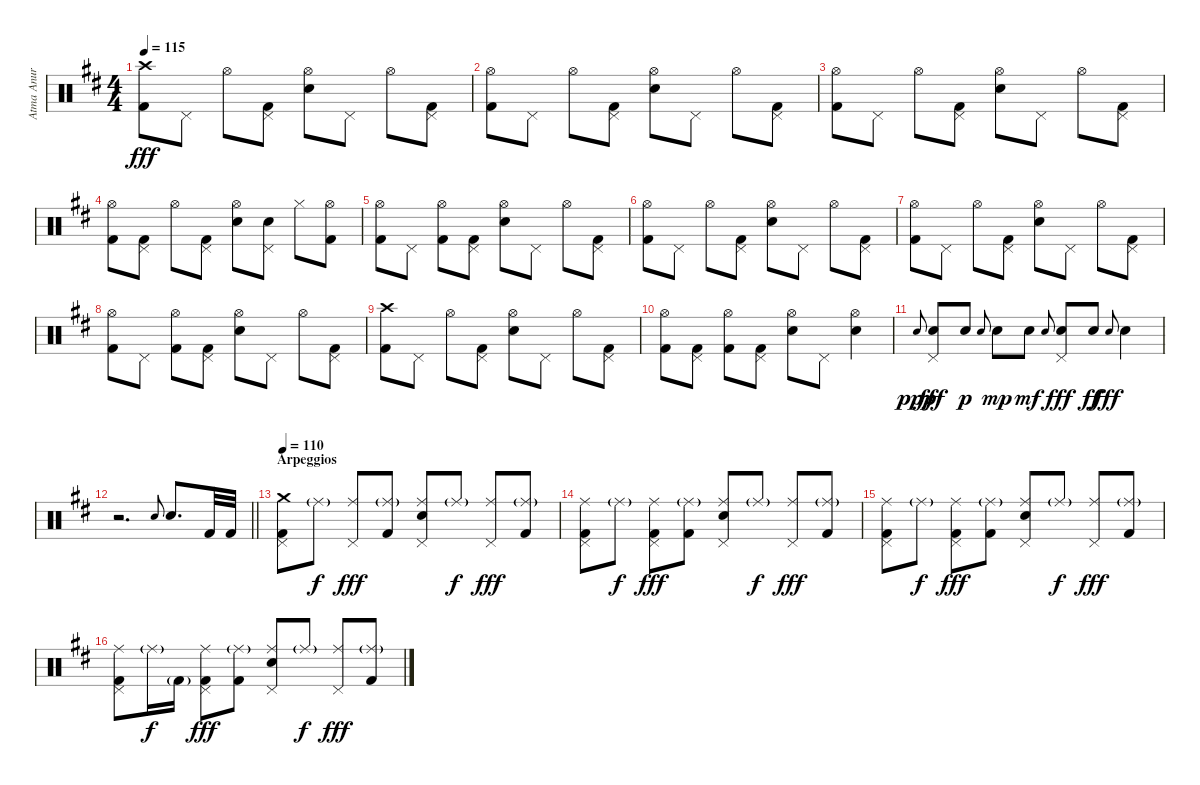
\track ("Atma Anur" "Atma Anur") {instrument percussion}
\staff {score}
\articulation defaults
\ts (4 4)
\tempo 115
\clef neutral
\ks bminor
("Crash high (hit)" "Kick (hit) 2").8{dy fff} "Pedal Hi-Hat (hit)".8 "Hi-Hat (open)".8 ("Pedal Hi-Hat (hit)" "Kick (hit) 2").8 ("Hi-Hat (open)" "Electric Snare (hit)").8 "Pedal Hi-Hat (hit)".8 "Hi-Hat (open)".8 ("Pedal Hi-Hat (hit)" "Kick (hit) 2").8 |
("Hi-Hat (open)" "Kick (hit) 2").8 "Pedal Hi-Hat (hit)".8 "Hi-Hat (open)".8 ("Pedal Hi-Hat (hit)" "Kick (hit) 2").8 ("Hi-Hat (open)" "Electric Snare (hit)").8 "Pedal Hi-Hat (hit)".8 "Hi-Hat (open)".8 ("Pedal Hi-Hat (hit)" "Kick (hit) 2").8 |
("Hi-Hat (open)" "Kick (hit) 2").8 "Pedal Hi-Hat (hit)".8 "Hi-Hat (open)".8 ("Pedal Hi-Hat (hit)" "Kick (hit) 2").8 ("Hi-Hat (open)" "Electric Snare (hit)").8 "Pedal Hi-Hat (hit)".8 "Hi-Hat (open)".8 ("Pedal Hi-Hat (hit)" "Kick (hit) 2").8 |
("Hi-Hat (open)" "Kick (hit) 2").8 ("Pedal Hi-Hat (hit)" "Kick (hit) 2").8 "Hi-Hat (open)".8 ("Pedal Hi-Hat (hit)" "Kick (hit) 2").8 ("Hi-Hat (open)" "Electric Snare (hit)").8 ("Pedal Hi-Hat (hit)" "Electric Snare (hit)").8 "Hi-Hat (closed)".8 ("Hi-Hat (open)" "Kick (hit) 2").8 |
("Hi-Hat (open)" "Kick (hit) 2").8 "Pedal Hi-Hat (hit)".8 ("Hi-Hat (open)" "Kick (hit) 2").8 ("Pedal Hi-Hat (hit)" "Kick (hit) 2").8 ("Hi-Hat (open)" "Electric Snare (hit)").8 "Pedal Hi-Hat (hit)".8 "Hi-Hat (open)".8 ("Pedal Hi-Hat (hit)" "Kick (hit) 2").8 |
("Hi-Hat (open)" "Kick (hit) 2").8 "Pedal Hi-Hat (hit)".8 "Hi-Hat (open)".8 ("Pedal Hi-Hat (hit)" "Kick (hit) 2").8 ("Hi-Hat (open)" "Electric Snare (hit)").8 "Pedal Hi-Hat (hit)".8 "Hi-Hat (open)".8 ("Pedal Hi-Hat (hit)" "Kick (hit) 2").8 |
("Hi-Hat (open)" "Kick (hit) 2").8 "Pedal Hi-Hat (hit)".8 "Hi-Hat (open)".8 ("Pedal Hi-Hat (hit)" "Kick (hit) 2").8 ("Hi-Hat (open)" "Electric Snare (hit)").8 "Pedal Hi-Hat (hit)".8 "Hi-Hat (open)".8 ("Pedal Hi-Hat (hit)" "Kick (hit) 2").8 |
("Hi-Hat (open)" "Kick (hit) 2").8 "Pedal Hi-Hat (hit)".8 ("Hi-Hat (open)" "Kick (hit) 2").8 ("Pedal Hi-Hat (hit)" "Kick (hit) 2").8 ("Hi-Hat (open)" "Electric Snare (hit)").8 "Pedal Hi-Hat (hit)".8 "Hi-Hat (open)".8 ("Pedal Hi-Hat (hit)" "Kick (hit) 2").8 |
("Crash high (hit)" "Kick (hit) 2").8 "Pedal Hi-Hat (hit)".8 "Hi-Hat (open)".8 ("Pedal Hi-Hat (hit)" "Kick (hit) 2").8 ("Hi-Hat (open)" "Electric Snare (hit)").8 "Pedal Hi-Hat (hit)".8 "Hi-Hat (open)".8 ("Pedal Hi-Hat (hit)" "Kick (hit) 2").8 |
("Hi-Hat (open)" "Kick (hit) 2").8 ("Pedal Hi-Hat (hit)" "Kick (hit) 2").8 ("Hi-Hat (open)" "Kick (hit) 2").8 ("Pedal Hi-Hat (hit)" "Kick (hit) 2").8 ("Hi-Hat (open)" "Electric Snare (hit)").8 "Pedal Hi-Hat (hit)".8 ("Hi-Hat (open)" "Electric Snare (hit)").4 |
"Electric Snare (hit)".8{gr onbeat dy ppp} ("Electric Snare (hit)" "Pedal Hi-Hat (hit)").8{dy fff} "Electric Snare (hit)".8{dy p} "Electric Snare (hit)".8{gr onbeat} "Electric Snare (hit)".8{dy mp} "Electric Snare (hit)".8{dy mf} "Electric Snare (hit)".8{gr onbeat} ("Electric Snare (hit)" "Pedal Hi-Hat (hit)").8{dy fff} "Electric Snare (hit)".8{dy ff} "Electric Snare (hit)".8{gr onbeat dy fff} "Electric Snare (hit)".4 |
\barLineRight lightlight
r.2{d} "Electric Snare (hit)".8{gr onbeat} "Electric Snare (hit)".8{d} "Kick (hit) 2".32 "Kick (hit) 2".32 |
\section ("" "Arpeggios")
\tempo 110
("Crash medium (hit)" "Pedal Hi-Hat (hit)" "Kick (hit) 2").8 "Ride (middle)"{g}.8{dy f} ("Ride (middle)" "Pedal Hi-Hat (hit)").8{dy fff} ("Ride (middle)"{g} "Kick (hit) 2").8 ("Ride (middle)" "Electric Snare (hit)" "Pedal Hi-Hat (hit)").8 "Ride (middle)"{g}.8{dy f} ("Ride (middle)" "Pedal Hi-Hat (hit)").8{dy fff} ("Ride (middle)"{g} "Kick (hit) 2").8 |
("Ride (middle)" "Pedal Hi-Hat (hit)" "Kick (hit) 2").8 "Ride (middle)"{g}.8{dy f} ("Ride (middle)" "Pedal Hi-Hat (hit)" "Kick (hit) 2").8{dy fff} ("Ride (middle)"{g} "Kick (hit) 2").8 ("Ride (middle)" "Electric Snare (hit)" "Pedal Hi-Hat (hit)").8 "Ride (middle)"{g}.8{dy f} ("Ride (middle)" "Pedal Hi-Hat (hit)").8{dy fff} ("Ride (middle)"{g} "Kick (hit) 2").8 |
("Ride (middle)" "Pedal Hi-Hat (hit)" "Kick (hit) 2").8 "Ride (middle)"{g}.8{dy f} ("Ride (middle)" "Pedal Hi-Hat (hit)" "Kick (hit) 2").8{dy fff} ("Ride (middle)"{g} "Kick (hit) 2").8 ("Ride (middle)" "Electric Snare (hit)" "Pedal Hi-Hat (hit)").8 "Ride (middle)"{g}.8{dy f} ("Ride (middle)" "Pedal Hi-Hat (hit)").8{dy fff} ("Ride (middle)"{g} "Kick (hit) 2").8 |
("Ride (middle)" "Pedal Hi-Hat (hit)" "Kick (hit) 2").8 "Ride (middle)"{g}.16{dy f} "Kick (hit) 2"{g}.16 ("Ride (middle)" "Pedal Hi-Hat (hit)" "Kick (hit) 2").8{dy fff} ("Ride (middle)"{g} "Kick (hit) 2").8 ("Ride (middle)" "Electric Snare (hit)" "Pedal Hi-Hat (hit)").8 "Ride (middle)"{g}.8{dy f} ("Ride (middle)" "Pedal Hi-Hat (hit)").8{dy fff} ("Ride (middle)"{g} "Kick (hit) 2").8
